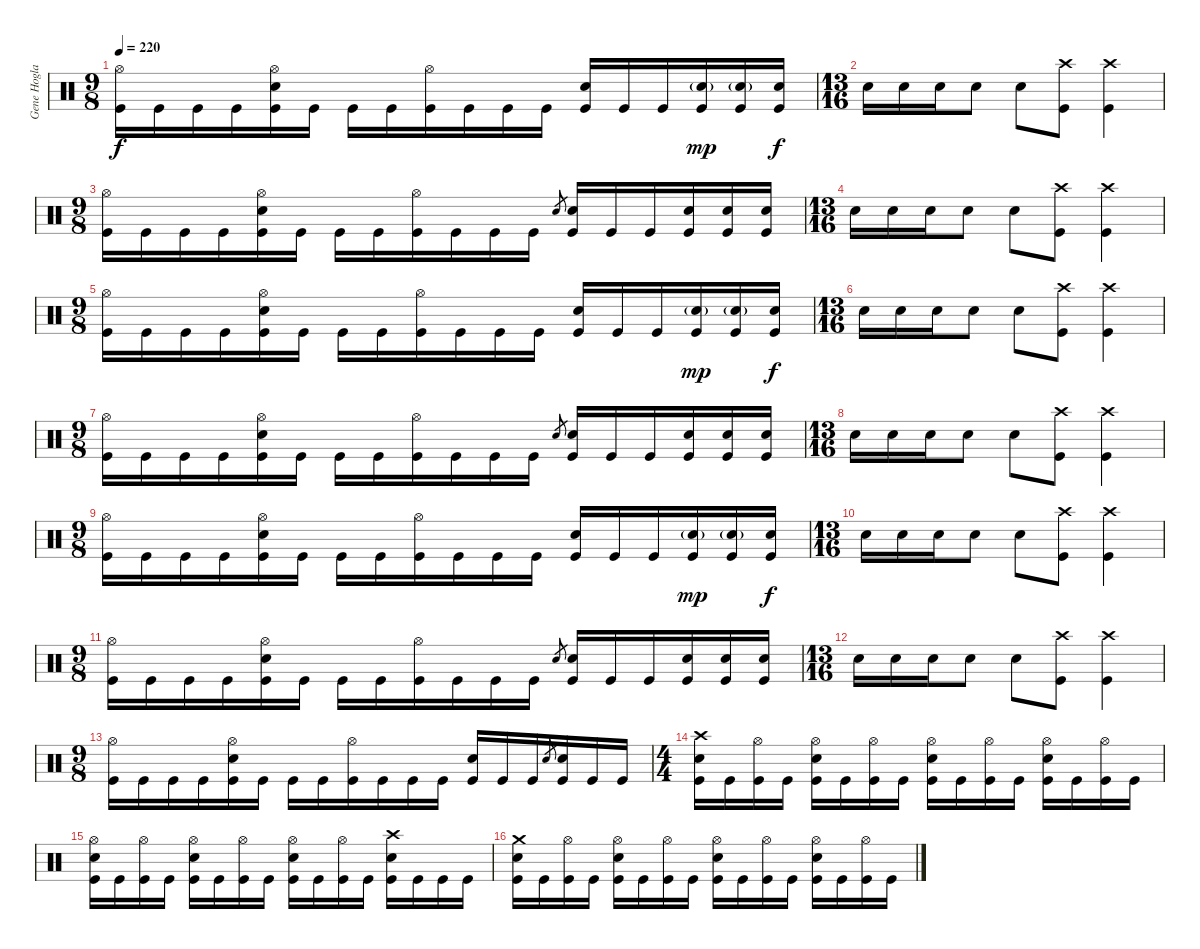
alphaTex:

\track ("Gene Hoglan" "Gene Hogla") {instrument percussion}
\staff {score}
\articulation defaults
\ts (9 8)
\tempo 220
\clef neutral
\ks c
("Hi-Hat (open)" "Kick (hit)").16{dy f} "Kick (hit)".16 "Kick (hit)".16 "Kick (hit)".16 ("Hi-Hat (open)" "Electric Snare (hit)" "Kick (hit)").16 "Kick (hit)".16 "Kick (hit)".16 "Kick (hit)".16 ("Hi-Hat (open)" "Kick (hit)").16 "Kick (hit)".16 "Kick (hit)".16 "Kick (hit)".16 ("Electric Snare (hit)" "Kick (hit)").16 "Kick (hit)".16 "Kick (hit)".16 ("Electric Snare (hit)"{g} "Kick (hit)").16{dy mp} ("Electric Snare (hit)"{g} "Kick (hit)").16 ("Electric Snare (hit)" "Kick (hit)").16{dy f} |
\ts (13 16)
"Electric Snare (hit)".16 "Electric Snare (hit)".16 "Electric Snare (hit)".16 "Electric Snare (hit)".8 "Electric Snare (hit)".8 ("Crash high (hit)" "Kick (hit)").8 ("Crash high (hit)" "Kick (hit)").4 |
\ts (9 8)
("Hi-Hat (open)" "Kick (hit)").16 "Kick (hit)".16 "Kick (hit)".16 "Kick (hit)".16 ("Hi-Hat (open)" "Electric Snare (hit)" "Kick (hit)").16 "Kick (hit)".16 "Kick (hit)".16 "Kick (hit)".16 ("Hi-Hat (open)" "Kick (hit)").16 "Kick (hit)".16 "Kick (hit)".16 "Kick (hit)".16 "Electric Snare (hit)".8{gr} ("Electric Snare (hit)" "Kick (hit)").16 "Kick (hit)".16 "Kick (hit)".16 ("Electric Snare (hit)" "Kick (hit)").16 ("Electric Snare (hit)" "Kick (hit)").16 ("Electric Snare (hit)" "Kick (hit)").16 |
\ts (13 16)
"Electric Snare (hit)".16 "Electric Snare (hit)".16 "Electric Snare (hit)".16 "Electric Snare (hit)".8 "Electric Snare (hit)".8 ("Crash high (hit)" "Kick (hit)").8 ("Crash high (hit)" "Kick (hit)").4 |
\ts (9 8)
("Hi-Hat (open)" "Kick (hit)").16 "Kick (hit)".16 "Kick (hit)".16 "Kick (hit)".16 ("Hi-Hat (open)" "Electric Snare (hit)" "Kick (hit)").16 "Kick (hit)".16 "Kick (hit)".16 "Kick (hit)".16 ("Hi-Hat (open)" "Kick (hit)").16 "Kick (hit)".16 "Kick (hit)".16 "Kick (hit)".16 ("Electric Snare (hit)" "Kick (hit)").16 "Kick (hit)".16 "Kick (hit)".16 ("Electric Snare (hit)"{g} "Kick (hit)").16{dy mp} ("Electric Snare (hit)"{g} "Kick (hit)").16 ("Electric Snare (hit)" "Kick (hit)").16{dy f} |
\ts (13 16)
"Electric Snare (hit)".16 "Electric Snare (hit)".16 "Electric Snare (hit)".16 "Electric Snare (hit)".8 "Electric Snare (hit)".8 ("Crash high (hit)" "Kick (hit)").8 ("Crash high (hit)" "Kick (hit)").4 |
\ts (9 8)
("Hi-Hat (open)" "Kick (hit)").16 "Kick (hit)".16 "Kick (hit)".16 "Kick (hit)".16 ("Hi-Hat (open)" "Electric Snare (hit)" "Kick (hit)").16 "Kick (hit)".16 "Kick (hit)".16 "Kick (hit)".16 ("Hi-Hat (open)" "Kick (hit)").16 "Kick (hit)".16 "Kick (hit)".16 "Kick (hit)".16 "Electric Snare (hit)".8{gr} ("Electric Snare (hit)" "Kick (hit)").16 "Kick (hit)".16 "Kick (hit)".16 ("Electric Snare (hit)" "Kick (hit)").16 ("Electric Snare (hit)" "Kick (hit)").16 ("Electric Snare (hit)" "Kick (hit)").16 |
\ts (13 16)
"Electric Snare (hit)".16 "Electric Snare (hit)".16 "Electric Snare (hit)".16 "Electric Snare (hit)".8 "Electric Snare (hit)".8 ("Crash high (hit)" "Kick (hit)").8 ("Crash high (hit)" "Kick (hit)").4 |
\ts (9 8)
("Hi-Hat (open)" "Kick (hit)").16 "Kick (hit)".16 "Kick (hit)".16 "Kick (hit)".16 ("Hi-Hat (open)" "Electric Snare (hit)" "Kick (hit)").16 "Kick (hit)".16 "Kick (hit)".16 "Kick (hit)".16 ("Hi-Hat (open)" "Kick (hit)").16 "Kick (hit)".16 "Kick (hit)".16 "Kick (hit)".16 ("Electric Snare (hit)" "Kick (hit)").16 "Kick (hit)".16 "Kick (hit)".16 ("Electric Snare (hit)"{g} "Kick (hit)").16{dy mp} ("Electric Snare (hit)"{g} "Kick (hit)").16 ("Electric Snare (hit)" "Kick (hit)").16{dy f} |
\ts (13 16)
"Electric Snare (hit)".16 "Electric Snare (hit)".16 "Electric Snare (hit)".16 "Electric Snare (hit)".8 "Electric Snare (hit)".8 ("Crash high (hit)" "Kick (hit)").8 ("Crash high (hit)" "Kick (hit)").4 |
\ts (9 8)
("Hi-Hat (open)" "Kick (hit)").16 "Kick (hit)".16 "Kick (hit)".16 "Kick (hit)".16 ("Hi-Hat (open)" "Electric Snare (hit)" "Kick (hit)").16 "Kick (hit)".16 "Kick (hit)".16 "Kick (hit)".16 ("Hi-Hat (open)" "Kick (hit)").16 "Kick (hit)".16 "Kick (hit)".16 "Kick (hit)".16 "Electric Snare (hit)".8{gr} ("Electric Snare (hit)" "Kick (hit)").16 "Kick (hit)".16 "Kick (hit)".16 ("Electric Snare (hit)" "Kick (hit)").16 ("Electric Snare (hit)" "Kick (hit)").16 ("Electric Snare (hit)" "Kick (hit)").16 |
\ts (13 16)
"Electric Snare (hit)".16 "Electric Snare (hit)".16 "Electric Snare (hit)".16 "Electric Snare (hit)".8 "Electric Snare (hit)".8 ("Crash high (hit)" "Kick (hit)").8 ("Crash high (hit)" "Kick (hit)").4 |
\ts (9 8)
("Hi-Hat (open)" "Kick (hit)").16 "Kick (hit)".16 "Kick (hit)".16 "Kick (hit)".16 ("Hi-Hat (open)" "Electric Snare (hit)" "Kick (hit)").16 "Kick (hit)".16 "Kick (hit)".16 "Kick (hit)".16 ("Hi-Hat (open)" "Kick (hit)").16 "Kick (hit)".16 "Kick (hit)".16 "Kick (hit)".16 ("Electric Snare (hit)" "Kick (hit)").16 "Kick (hit)".16 "Kick (hit)".16 "Electric Snare (hit)".8{gr} ("Electric Snare (hit)" "Kick (hit)").16 "Kick (hit)".16 "Kick (hit)".16 |
\ts (4 4)
("Crash high (hit)" "Electric Snare (hit)" "Kick (hit)").16 "Kick (hit)".16 ("Hi-Hat (open)" "Kick (hit)").16 "Kick (hit)".16 ("Hi-Hat (open)" "Electric Snare (hit)" "Kick (hit)").16 "Kick (hit)".16 ("Hi-Hat (open)" "Kick (hit)").16 "Kick (hit)".16 ("Hi-Hat (open)" "Electric Snare (hit)" "Kick (hit)").16 "Kick (hit)".16 ("Hi-Hat (open)" "Kick (hit)").16 "Kick (hit)".16 ("Hi-Hat (open)" "Electric Snare (hit)" "Kick (hit)").16 "Kick (hit)".16 ("Hi-Hat (open)" "Kick (hit)").16 "Kick (hit)".16 |
("Hi-Hat (open)" "Electric Snare (hit)" "Kick (hit)").16 "Kick (hit)".16 ("Hi-Hat (open)" "Kick (hit)").16 "Kick (hit)".16 ("Hi-Hat (open)" "Electric Snare (hit)" "Kick (hit)").16 "Kick (hit)".16 ("Hi-Hat (open)" "Kick (hit)").16 "Kick (hit)".16 ("Hi-Hat (open)" "Electric Snare (hit)" "Kick (hit)").16 "Kick (hit)".16 ("Hi-Hat (open)" "Kick (hit)").16 "Kick (hit)".16 ("Crash high (hit)" "Electric Snare (hit)" "Kick (hit)").16 "Kick (hit)".16 "Kick (hit)".16 "Kick (hit)".16 |
("Crash medium (hit)" "Electric Snare (hit)" "Kick (hit)").16 "Kick (hit)".16 ("Hi-Hat (open)" "Kick (hit)").16 "Kick (hit)".16 ("Hi-Hat (open)" "Electric Snare (hit)" "Kick (hit)").16 "Kick (hit)".16 ("Hi-Hat (open)" "Kick (hit)").16 "Kick (hit)".16 ("Hi-Hat (open)" "Electric Snare (hit)" "Kick (hit)").16 "Kick (hit)".16 ("Hi-Hat (open)" "Kick (hit)").16 "Kick (hit)".16 ("Hi-Hat (open)" "Electric Snare (hit)" "Kick (hit)").16 "Kick (hit)".16 ("Hi-Hat (open)" "Kick (hit)").16 "Kick (hit)".16
